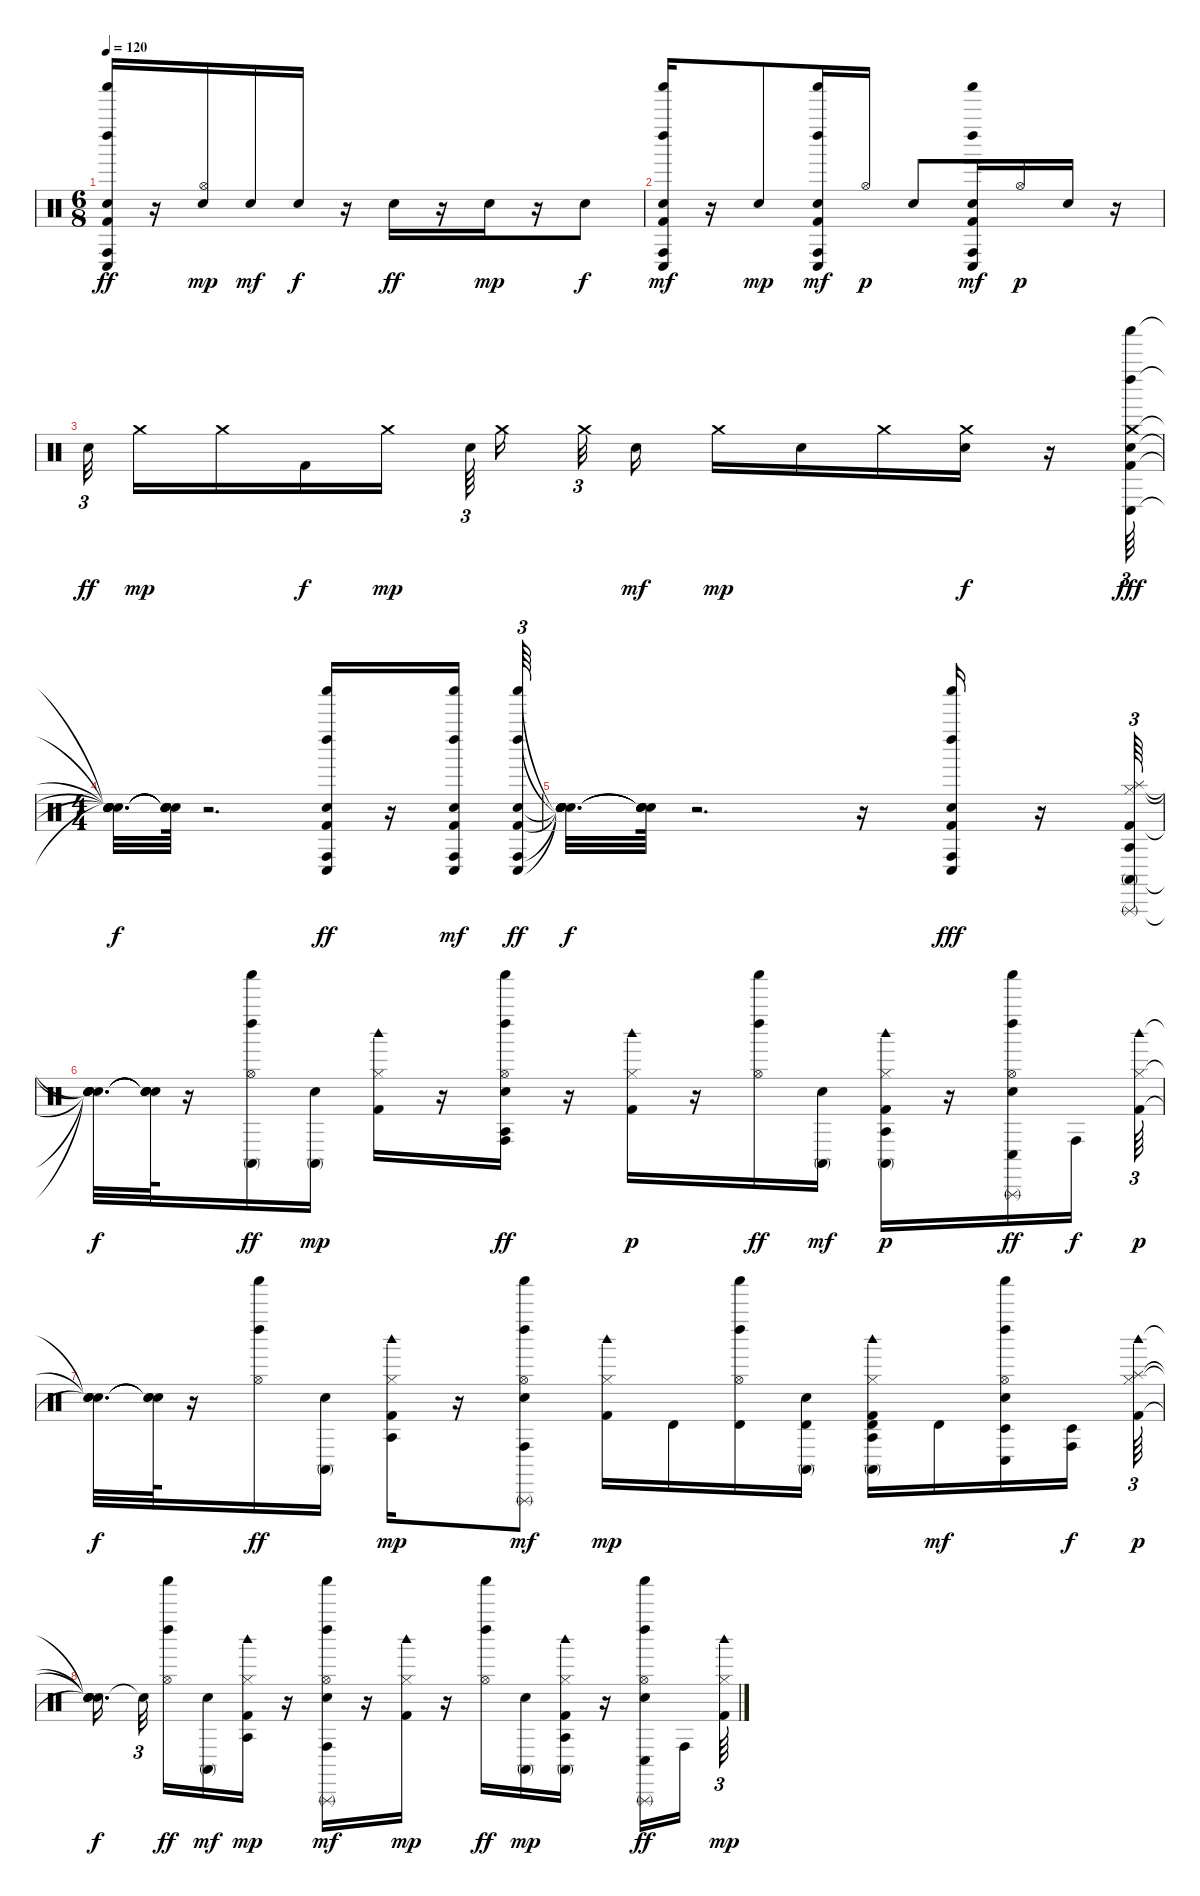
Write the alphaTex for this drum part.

\track "" {instrument percussion}
\staff {score}
\articulation defaults
\ts (6 8)
\tempo 120
\clef neutral
\ks c
("Kick (hit) 2" "Shaker (hit)" "Left Maraca (hit)" "Electric Snare (hit)" "Conga low (hit)" "Conga high (hit)").16{dy ff} r.16 ("Hi-Hat (open)" "Hand Clap (hit)").16{dy mp} "Hand Clap (hit)".16{dy mf} "Hand Clap (hit)".16{dy f} r.16 "Hand Clap (hit)".16{dy ff} r.16 "Hand Clap (hit)".16{dy mp} r.16 "Hand Clap (hit)".8{dy f} |
("Kick (hit) 2" "Shaker (hit)" "Left Maraca (hit)" "Electric Snare (hit)" "Conga low (hit)" "Conga high (hit)").16{dy mf} r.16 "Hand Clap (hit)".8{dy mp} ("Kick (hit) 2" "Shaker (hit)" "Left Maraca (hit)" "Electric Snare (hit)" "Conga low (hit)" "Conga high (hit)").16{dy mf} "Hi-Hat (open)".16{dy p} "Hand Clap (hit)".8 ("Kick (hit) 2" "Shaker (hit)" "Left Maraca (hit)" "Electric Snare (hit)" "Conga low (hit)" "Conga high (hit)").16{dy mf} "Hi-Hat (open)".16{dy p} "Hand Clap (hit)".16 r.16 |
"Hand Clap (hit)".32{tu (3 2) dy ff beam splitsecondary} "Crash medium (hit)".16{dy mp} "Crash medium (hit)".16 "Kick (hit) 2".16{dy f} "Crash medium (hit)".16{dy mp beam splitsecondary} "Hand Clap (hit)".64{tu (3 2) beam splitsecondary} "Crash medium (hit)".16{beam splitsecondary} "Crash medium (hit)".32{tu (3 2)} "Hand Clap (hit)".16{dy mf} "Crash medium (hit)".16{dy mp} "Hand Clap (hit)".16 "Crash medium (hit)".16 ("Hand Clap (hit)" "Crash medium (hit)").16{dy f} r.16 ("Crash medium (hit)" "Kick (hit) 2" "Shaker (hit)" "Left Maraca (hit)" "Electric Snare (hit)" "Conga low (hit)").64{tu (3 2) dy fff} |
\ts (4 4)
("Snare (hit)"{t} "Snare (hit)"{t} "Snare (hit)"{t} "Snare (hit)"{t} "Snare (hit)"{t} "Snare (hit)"{t}).32{d dy f} ("Snare (hit)"{t} "Snare (hit)"{t} "Snare (hit)"{t} "Snare (hit)"{t} "Snare (hit)"{t} "Snare (hit)"{t}).64 r.2{d} ("Kick (hit) 2" "Shaker (hit)" "Left Maraca (hit)" "Electric Snare (hit)" "Conga low (hit)" "Conga high (hit)").16{dy ff} r.16 ("Kick (hit) 2" "Shaker (hit)" "Left Maraca (hit)" "Electric Snare (hit)" "Conga low (hit)" "Conga high (hit)").16{dy mf} ("Kick (hit) 2" "Shaker (hit)" "Left Maraca (hit)" "Electric Snare (hit)" "Conga low (hit)" "Conga high (hit)").64{tu (3 2) dy ff} |
("Snare (hit)"{t} "Snare (hit)"{t} "Snare (hit)"{t} "Snare (hit)"{t} "Snare (hit)"{t} "Snare (hit)"{t}).32{d dy f} ("Snare (hit)"{t} "Snare (hit)"{t} "Snare (hit)"{t} "Snare (hit)"{t}).64 r.2{d} r.16 ("Kick (hit) 2" "Shaker (hit)" "Left Maraca (hit)" "Electric Snare (hit)" "Conga low (hit)" "Conga high (hit)").16{dy fff} r.16 ("Kick (hit) 2" "Conga high (mute)" "Hi-Hat (closed)" "Splash (hit)" "Triangle (rnute)" "Agogo tow (hit)").64{tu (3 2)} |
("Snare (hit)"{t} "Snare (hit)"{t} "Snare (hit)"{t} "Snare (hit)"{t} "Snare (hit)"{t}).32{d dy f} ("Snare (hit)"{t} "Snare (hit)"{t} "Snare (hit)"{t} "Snare (hit)"{t}).64 r.16 ("Shaker (hit)" "Left Maraca (hit)" "Conga high (mute)" "Hi-Hat (open)").16{dy ff} ("Electric Snare (hit)" "Conga high (mute)").16{dy mp} ("Kick (hit) 2" "Hi-Hat (closed)" "Woodblock high (hit)").16 r.16 ("Shaker (hit)" "Left Maraca (hit)" "Electric Snare (hit)" "Conga high (hit)" "Hi-Hat (open)" "Agogo tow (hit)").16{dy ff} r.16 ("Kick (hit) 2" "Hi-Hat (closed)" "Woodblock high (hit)").16{dy p} r.16 ("Shaker (hit)" "Left Maraca (hit)" "Hi-Hat (open)").16{dy ff} ("Electric Snare (hit)" "Conga high (mute)").16{dy mf} ("Kick (hit) 2" "Conga high (mute)" "Hi-Hat (closed)" "Agogo tow (hit)" "Woodblock high (hit)").16{dy p} r.16 ("Shaker (hit)" "Left Maraca (hit)" "Electric Snare (hit)" "Conga low (hit)" "Hi-Hat (open)" "Triangle (rnute)").16{dy ff} "Conga high (hit)".16{dy f} ("Kick (hit) 2" "Hi-Hat (closed)" "Woodblock high (hit)").64{tu (3 2) dy p} |
("Snare (hit)"{t} "Snare (hit)"{t} "Snare (hit)"{t}).32{d dy f} ("Snare (hit)"{t} "Snare (hit)"{t} "Snare (hit)"{t}).64 r.16 ("Shaker (hit)" "Left Maraca (hit)" "Hi-Hat (open)").16{dy ff} ("Electric Snare (hit)" "Conga high (mute)").16 ("Kick (hit) 2" "Hi-Hat (closed)" "Agogo tow (hit)" "Woodblock high (hit)").16{dy mp} r.16 ("Shaker (hit)" "Left Maraca (hit)" "Electric Snare (hit)" "Conga high (hit)" "Hi-Hat (open)" "Triangle (rnute)").8{dy mf} ("Kick (hit) 2" "Hi-Hat (closed)" "Woodblock high (hit)").16{dy mp} "Timbale high (hit)".16 ("Shaker (hit)" "Left Maraca (hit)" "Hi-Hat (open)" "Timbale high (hit)").16 ("Electric Snare (hit)" "Conga high (mute)" "Timbale high (hit)").16 ("Kick (hit) 2" "Conga high (mute)" "Hi-Hat (closed)" "Timbale high (hit)" "Agogo tow (hit)" "Woodblock high (hit)").16 "Timbale high (hit)".16{dy mf} ("Shaker (hit)" "Left Maraca (hit)" "Electric Snare (hit)" "Conga low (hit)" "Hi-Hat (open)" "Timbale low (hit)").16 ("Conga high (hit)" "Timbale low (hit)").16{dy f} ("Kick (hit) 2" "Hi-Hat (closed)" "Splash (hit)" "Woodblock high (hit)").64{tu (3 2) dy p} |
("Snare (hit)"{t} "Snare (hit)"{t} "Snare (hit)"{t} "Snare (hit)"{t}).16{d dy f beam splitsecondary} "Snare (hit)"{t}.32{tu (3 2) beam splitsecondary} ("Shaker (hit)" "Left Maraca (hit)" "Hi-Hat (open)").16{dy ff} ("Electric Snare (hit)" "Conga high (mute)").16{dy mf} ("Kick (hit) 2" "Hi-Hat (closed)" "Agogo tow (hit)" "Woodblock high (hit)").16{dy mp} r.16 ("Shaker (hit)" "Left Maraca (hit)" "Electric Snare (hit)" "Conga high (hit)" "Hi-Hat (open)" "Triangle (rnute)").16{dy mf} r.16 ("Kick (hit) 2" "Hi-Hat (closed)" "Woodblock high (hit)").16{dy mp} r.16 ("Shaker (hit)" "Left Maraca (hit)" "Hi-Hat (open)").16{dy ff} ("Electric Snare (hit)" "Conga high (mute)").16{dy mp} ("Kick (hit) 2" "Conga high (mute)" "Hi-Hat (closed)" "Agogo tow (hit)" "Woodblock high (hit)").16 r.16 ("Shaker (hit)" "Left Maraca (hit)" "Electric Snare (hit)" "Conga low (hit)" "Hi-Hat (open)" "Triangle (rnute)").16{dy ff} "Conga high (hit)".16{beam splitsecondary} ("Kick (hit) 2" "Hi-Hat (closed)" "Woodblock high (hit)").64{tu (3 2) dy mp}
